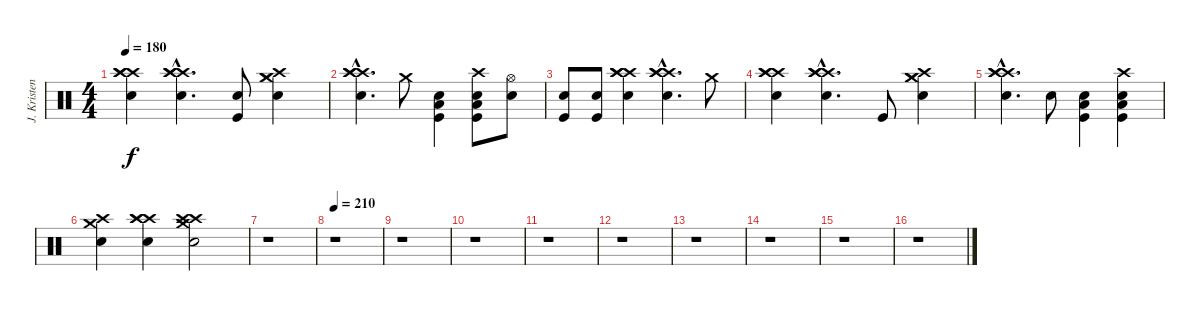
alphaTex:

\track ("J. Kristensson" "J. Kristen") {instrument percussion}
\staff {score}
\articulation defaults
\ts (4 4)
\tempo 180
\clef neutral
\ks c
("Crash high (hit)" "Crash high (hit)" "Crash high (hit)" "Snare (hit) 2").4{dy f} ("Crash high (hit)"{hac} "Crash high (hit)"{hac} "Crash high (hit)"{hac} "Snare (hit) 2"{hac}).4{d} ("Kick (hit)" "Snare (hit) 2").8 ("Crash medium (hit)" "Crash medium (hit)" "Crash high (hit)" "Snare (hit) 2").4 |
("Crash high (hit)"{hac} "Crash high (hit)"{hac} "Crash high (hit)"{hac} "Snare (hit) 2"{hac}).4{d} "Crash medium (hit)".8 ("Low Tom (hit)" "Kick (hit)" "Snare (hit) 2").4 ("Low Tom (hit)" "Kick (hit)" "Snare (hit) 2" "Crash high (hit)").8 ("Electric Snare (hit)" "Hi-Hat (open)").8 |
("Snare (hit) 2" "Kick (hit)").8 ("Snare (hit) 2" "Kick (hit)").8 ("Crash high (hit)" "Crash high (hit)" "Crash high (hit)" "Snare (hit) 2").4 ("Crash high (hit)"{hac} "Crash high (hit)"{hac} "Crash high (hit)"{hac} "Snare (hit) 2"{hac}).4{d} "Crash medium (hit)".8 |
("Crash high (hit)" "Crash high (hit)" "Crash high (hit)" "Snare (hit) 2").4 ("Crash high (hit)"{hac} "Crash high (hit)"{hac} "Crash high (hit)"{hac} "Snare (hit) 2"{hac}).4{d} "Kick (hit)".8 ("Crash medium (hit)" "Crash medium (hit)" "Crash high (hit)" "Snare (hit) 2").4 |
("Crash high (hit)"{hac} "Crash high (hit)"{hac} "Crash high (hit)"{hac} "Snare (hit) 2"{hac}).4{d} "Snare (hit) 2".8 ("Low Tom (hit)" "Kick (hit)" "Snare (hit) 2").4 ("Low Tom (hit)" "Kick (hit)" "Snare (hit) 2" "Crash high (hit)").4 |
("Crash medium (hit)" "Crash high (hit)" "Snare (hit) 2").4 ("Crash high (hit)" "Crash high (hit)" "Crash high (hit)" "Snare (hit) 2").4 ("Crash medium (hit)" "Crash high (hit)" "Crash high (hit)" "Snare (hit) 2").2 |
r.1 |
\tempo 210
r.1 |
r.1 |
r.1 |
r.1 |
r.1 |
r.1 |
r.1 |
r.1 |
r.1
